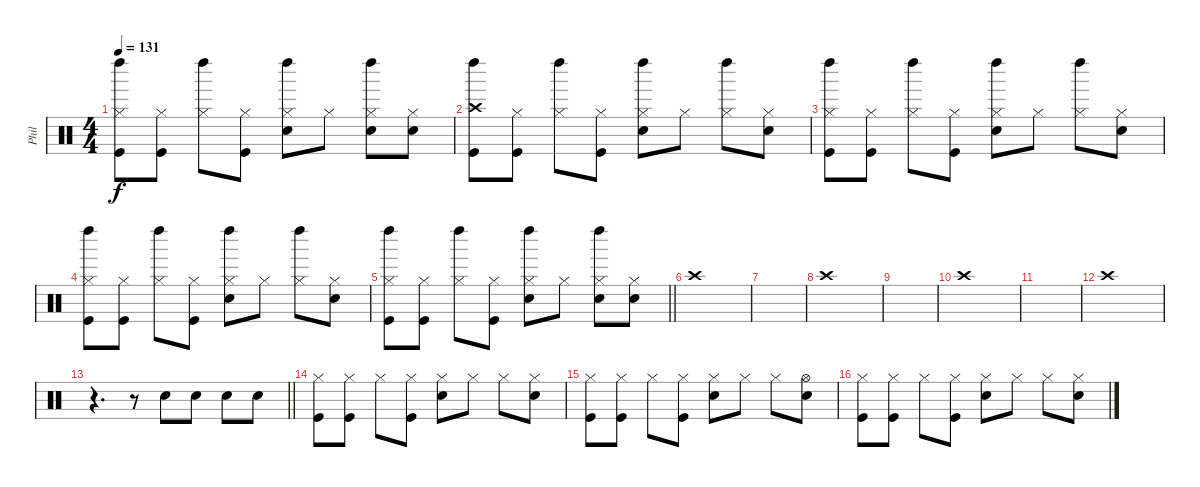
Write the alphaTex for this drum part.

\track ("Phil" "Phil") {instrument percussion}
\staff {score}
\articulation defaults
\ts (4 4)
\tempo 131
\clef neutral
\ks c
("Left Maraca (hit)" "Hi-Hat (closed)" "Kick (hit)").8{dy f} ("Hi-Hat (closed)" "Kick (hit)").8 ("Left Maraca (hit)" "Hi-Hat (closed)").8 ("Hi-Hat (closed)" "Kick (hit)").8 ("Left Maraca (hit)" "Hi-Hat (closed)" "Electric Snare (hit)").8 "Hi-Hat (closed)".8 ("Left Maraca (hit)" "Hi-Hat (closed)" "Electric Snare (hit)").8 ("Hi-Hat (closed)" "Electric Snare (hit)").8 |
("Left Maraca (hit)" "Crash high (hit)" "Kick (hit)").8 ("Hi-Hat (closed)" "Kick (hit)").8 ("Left Maraca (hit)" "Hi-Hat (closed)").8 ("Hi-Hat (closed)" "Kick (hit)").8 ("Left Maraca (hit)" "Hi-Hat (closed)" "Electric Snare (hit)").8 "Hi-Hat (closed)".8 ("Left Maraca (hit)" "Hi-Hat (closed)").8 ("Hi-Hat (closed)" "Electric Snare (hit)").8 |
("Left Maraca (hit)" "Hi-Hat (closed)" "Kick (hit)").8 ("Hi-Hat (closed)" "Kick (hit)").8 ("Left Maraca (hit)" "Hi-Hat (closed)").8 ("Hi-Hat (closed)" "Kick (hit)").8 ("Left Maraca (hit)" "Hi-Hat (closed)" "Electric Snare (hit)").8 "Hi-Hat (closed)".8 ("Left Maraca (hit)" "Hi-Hat (closed)").8 ("Hi-Hat (closed)" "Electric Snare (hit)").8 |
("Left Maraca (hit)" "Hi-Hat (closed)" "Kick (hit)").8 ("Hi-Hat (closed)" "Kick (hit)").8 ("Left Maraca (hit)" "Hi-Hat (closed)").8 ("Hi-Hat (closed)" "Kick (hit)").8 ("Left Maraca (hit)" "Hi-Hat (closed)" "Electric Snare (hit)").8 "Hi-Hat (closed)".8 ("Left Maraca (hit)" "Hi-Hat (closed)").8 ("Hi-Hat (closed)" "Electric Snare (hit)").8 |
\barLineRight lightlight
("Left Maraca (hit)" "Hi-Hat (closed)" "Kick (hit)").8 ("Hi-Hat (closed)" "Kick (hit)").8 ("Left Maraca (hit)" "Hi-Hat (closed)").8 ("Hi-Hat (closed)" "Kick (hit)").8 ("Left Maraca (hit)" "Hi-Hat (closed)" "Electric Snare (hit)").8 "Hi-Hat (closed)".8 ("Left Maraca (hit)" "Hi-Hat (closed)" "Electric Snare (hit)").8 ("Hi-Hat (closed)" "Electric Snare (hit)").8 |
"Crash high (hit)".1 |
|
"Crash high (hit)".1 |
|
"Crash high (hit)".1 |
|
"Crash high (hit)".1 |
\barLineRight lightlight
r.4{d volume 4} r.8 "Electric Snare (hit)".8{volume 13} "Electric Snare (hit)".8 "Electric Snare (hit)".8 "Electric Snare (hit)".8 |
("Hi-Hat (closed)" "Kick (hit)").8 ("Hi-Hat (closed)" "Kick (hit)").8 "Hi-Hat (closed)".8 ("Hi-Hat (closed)" "Kick (hit)").8 ("Hi-Hat (closed)" "Electric Snare (hit)").8 "Hi-Hat (closed)".8 "Hi-Hat (closed)".8 ("Hi-Hat (closed)" "Electric Snare (hit)").8 |
("Hi-Hat (closed)" "Kick (hit)").8 ("Hi-Hat (closed)" "Kick (hit)").8 "Hi-Hat (closed)".8 ("Hi-Hat (closed)" "Kick (hit)").8 ("Hi-Hat (closed)" "Electric Snare (hit)").8 "Hi-Hat (closed)".8 "Hi-Hat (closed)".8 ("Hi-Hat (open)" "Electric Snare (hit)").8 |
("Hi-Hat (closed)" "Kick (hit)").8 ("Hi-Hat (closed)" "Kick (hit)").8 "Hi-Hat (closed)".8 ("Hi-Hat (closed)" "Kick (hit)").8 ("Hi-Hat (closed)" "Electric Snare (hit)").8 "Hi-Hat (closed)".8 "Hi-Hat (closed)".8 ("Hi-Hat (closed)" "Electric Snare (hit)").8
